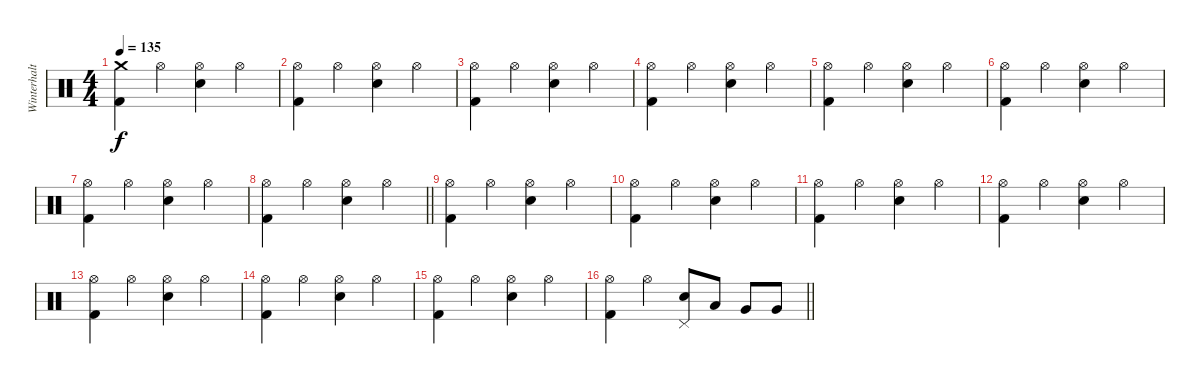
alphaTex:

\track ("Winterhalter" "Winterhalt") {instrument percussion}
\staff {score}
\articulation defaults
\ts (4 4)
\tempo 135
\clef neutral
\ks c
("Crash medium (hit)" "Kick (hit) 2").4{dy f} "Hi-Hat (open)".4 ("Hi-Hat (open)" "Snare (hit) 2").4 "Hi-Hat (open)".4 |
("Hi-Hat (open)" "Kick (hit) 2").4 "Hi-Hat (open)".4 ("Hi-Hat (open)" "Snare (hit) 2").4 "Hi-Hat (open)".4 |
("Hi-Hat (open)" "Kick (hit) 2").4 "Hi-Hat (open)".4 ("Hi-Hat (open)" "Snare (hit) 2").4 "Hi-Hat (open)".4 |
("Hi-Hat (open)" "Kick (hit) 2").4 "Hi-Hat (open)".4 ("Hi-Hat (open)" "Snare (hit) 2").4 "Hi-Hat (open)".4 |
("Hi-Hat (open)" "Kick (hit) 2").4 "Hi-Hat (open)".4 ("Hi-Hat (open)" "Snare (hit) 2").4 "Hi-Hat (open)".4 |
("Hi-Hat (open)" "Kick (hit) 2").4 "Hi-Hat (open)".4 ("Hi-Hat (open)" "Snare (hit) 2").4 "Hi-Hat (open)".4 |
("Hi-Hat (open)" "Kick (hit) 2").4 "Hi-Hat (open)".4 ("Hi-Hat (open)" "Snare (hit) 2").4 "Hi-Hat (open)".4 |
\barLineRight lightlight
("Hi-Hat (open)" "Kick (hit) 2").4 "Hi-Hat (open)".4 ("Hi-Hat (open)" "Snare (hit) 2").4 "Hi-Hat (open)".4 |
("Hi-Hat (open)" "Kick (hit) 2").4 "Hi-Hat (open)".4 ("Hi-Hat (open)" "Snare (hit) 2").4 "Hi-Hat (open)".4 |
("Hi-Hat (open)" "Kick (hit) 2").4 "Hi-Hat (open)".4 ("Hi-Hat (open)" "Snare (hit) 2").4 "Hi-Hat (open)".4 |
("Hi-Hat (open)" "Kick (hit) 2").4 "Hi-Hat (open)".4 ("Hi-Hat (open)" "Snare (hit) 2").4 "Hi-Hat (open)".4 |
("Hi-Hat (open)" "Kick (hit) 2").4 "Hi-Hat (open)".4 ("Hi-Hat (open)" "Snare (hit) 2").4 "Hi-Hat (open)".4 |
("Hi-Hat (open)" "Kick (hit) 2").4 "Hi-Hat (open)".4 ("Hi-Hat (open)" "Snare (hit) 2").4 "Hi-Hat (open)".4 |
("Hi-Hat (open)" "Kick (hit) 2").4 "Hi-Hat (open)".4 ("Hi-Hat (open)" "Snare (hit) 2").4 "Hi-Hat (open)".4 |
("Hi-Hat (open)" "Kick (hit) 2").4 "Hi-Hat (open)".4 ("Hi-Hat (open)" "Snare (hit) 2").4 "Hi-Hat (open)".4 |
\barLineRight lightlight
("Hi-Hat (open)" "Kick (hit) 2").4 "Hi-Hat (open)".4 ("Pedal Hi-Hat (hit)" "Snare (hit) 2").8 "Low Tom (hit)".8 "Very Low Tom (hit)".8 "Very Low Tom (hit)".8
